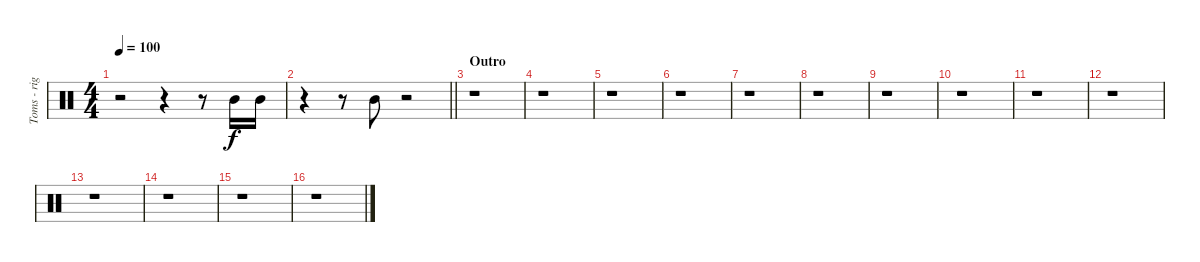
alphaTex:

\track ("Toms - right" "Toms - rig") {instrument percussion}
\staff {score}
\articulation defaults
\ts (4 4)
\tempo 100
\clef neutral
\ks c
r.2{dy f} r.4 r.8 "Mid Tom (hit)".16 "Mid Tom (hit)".16 |
\barLineRight lightlight
r.4 r.8 "Mid Tom (hit)".8 r.2 |
\section ("" "Outro")
r.1 |
r.1 |
r.1 |
r.1 |
r.1 |
r.1 |
r.1 |
r.1 |
r.1 |
r.1 |
r.1 |
r.1 |
r.1 |
r.1
